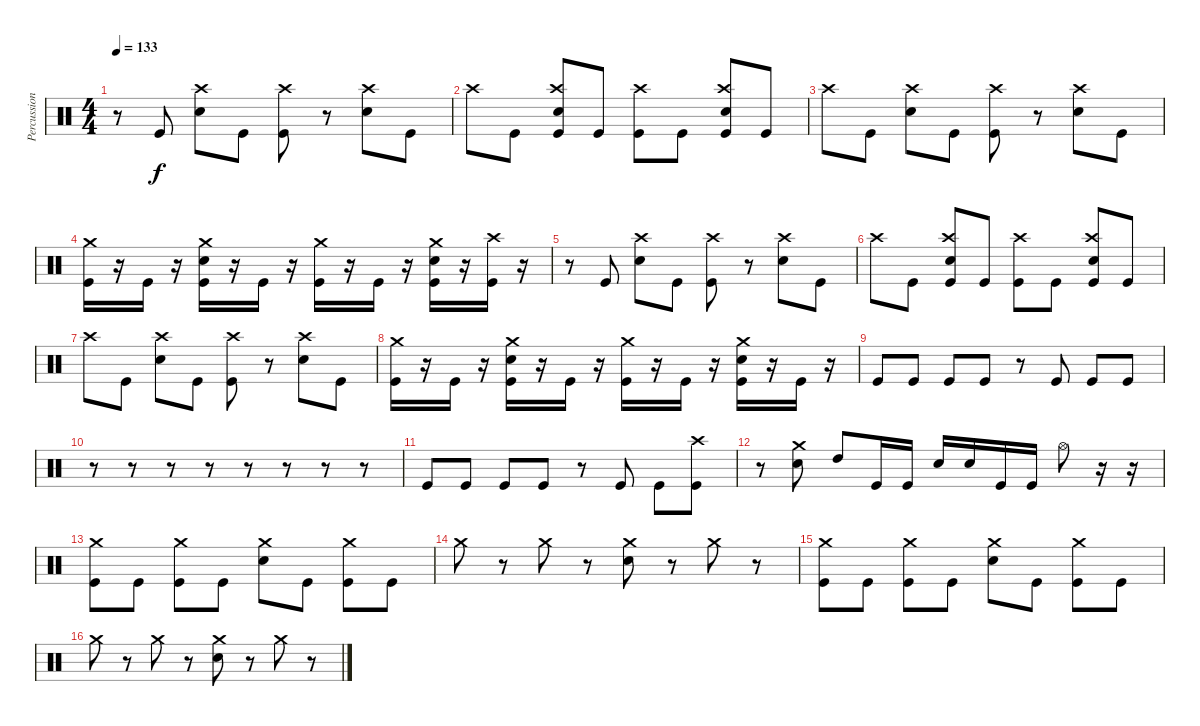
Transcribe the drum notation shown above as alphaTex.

\track ("Percussion" "Percussion") {instrument percussion}
\staff {score}
\articulation defaults
\ts (4 4)
\tempo 133
\clef neutral
\ks c
r.8{dy f} "Kick (hit)".8 ("Crash high (hit)" "Electric Snare (hit)").8 "Kick (hit)".8 ("Crash high (hit)" "Kick (hit)").8 r.8 ("Crash high (hit)" "Electric Snare (hit)").8 "Kick (hit)".8 |
"Crash high (hit)".8 "Kick (hit)".8 ("Crash high (hit)" "Electric Snare (hit)" "Kick (hit)").8 "Kick (hit)".8 ("Crash high (hit)" "Kick (hit)").8 "Kick (hit)".8 ("Crash high (hit)" "Electric Snare (hit)" "Kick (hit)").8 "Kick (hit)".8 |
"Crash high (hit)".8 "Kick (hit)".8 ("Crash high (hit)" "Electric Snare (hit)").8 "Kick (hit)".8 ("Crash high (hit)" "Kick (hit)").8 r.8 ("Crash high (hit)" "Electric Snare (hit)").8 "Kick (hit)".8 |
("Crash medium (hit)" "Kick (hit)").16 r.16 "Kick (hit)".16 r.16 ("Crash medium (hit)" "Electric Snare (hit)" "Kick (hit)").16 r.16 "Kick (hit)".16 r.16 ("Crash medium (hit)" "Kick (hit)").16 r.16 "Kick (hit)".16 r.16 ("Crash medium (hit)" "Electric Snare (hit)" "Kick (hit)").16 r.16 ("Crash high (hit)" "Kick (hit)").16 r.16 |
r.8 "Kick (hit)".8 ("Crash high (hit)" "Electric Snare (hit)").8 "Kick (hit)".8 ("Crash high (hit)" "Kick (hit)").8 r.8 ("Crash high (hit)" "Electric Snare (hit)").8 "Kick (hit)".8 |
"Crash high (hit)".8 "Kick (hit)".8 ("Crash high (hit)" "Electric Snare (hit)" "Kick (hit)").8 "Kick (hit)".8 ("Crash high (hit)" "Kick (hit)").8 "Kick (hit)".8 ("Crash high (hit)" "Electric Snare (hit)" "Kick (hit)").8 "Kick (hit)".8 |
"Crash high (hit)".8 "Kick (hit)".8 ("Crash high (hit)" "Electric Snare (hit)").8 "Kick (hit)".8 ("Crash high (hit)" "Kick (hit)").8 r.8 ("Crash high (hit)" "Electric Snare (hit)").8 "Kick (hit)".8 |
("Crash medium (hit)" "Kick (hit)").16 r.16 "Kick (hit)".16 r.16 ("Crash medium (hit)" "Electric Snare (hit)" "Kick (hit)").16 r.16 "Kick (hit)".16 r.16 ("Crash medium (hit)" "Kick (hit)").16 r.16 "Kick (hit)".16 r.16 ("Crash medium (hit)" "Electric Snare (hit)" "Kick (hit)").16 r.16 "Kick (hit)".16 r.16 |
"Kick (hit)".8 "Kick (hit)".8 "Kick (hit)".8 "Kick (hit)".8 r.8 "Kick (hit)".8 "Kick (hit)".8 "Kick (hit)".8 |
r.8 r.8 r.8 r.8 r.8 r.8 r.8 r.8 |
"Kick (hit)".8 "Kick (hit)".8 "Kick (hit)".8 "Kick (hit)".8 r.8 "Kick (hit)".8 "Kick (hit)".8 ("Crash high (hit)" "Kick (hit)").8 |
r.8 ("Crash medium (hit)" "Electric Snare (hit)").8 "High Tom (hit)".8 "Kick (hit)".16 "Kick (hit)".16 "Electric Snare (hit)".16 "Electric Snare (hit)".16 "Kick (hit)".16 "Kick (hit)".16 "Hi-Hat (open)".8 r.16 r.16 |
("Crash medium (hit)" "Kick (hit)").8 "Kick (hit)".8 ("Crash medium (hit)" "Kick (hit)").8 "Kick (hit)".8 ("Crash medium (hit)" "Electric Snare (hit)").8 "Kick (hit)".8 ("Crash medium (hit)" "Kick (hit)").8 "Kick (hit)".8 |
"Crash medium (hit)".8 r.8 "Crash medium (hit)".8 r.8 ("Crash medium (hit)" "Electric Snare (hit)").8 r.8 "Crash medium (hit)".8 r.8 |
("Crash medium (hit)" "Kick (hit)").8 "Kick (hit)".8 ("Crash medium (hit)" "Kick (hit)").8 "Kick (hit)".8 ("Crash medium (hit)" "Electric Snare (hit)").8 "Kick (hit)".8 ("Crash medium (hit)" "Kick (hit)").8 "Kick (hit)".8 |
"Crash medium (hit)".8 r.8 "Crash medium (hit)".8 r.8 ("Crash medium (hit)" "Electric Snare (hit)").8 r.8 "Crash medium (hit)".8 r.8
